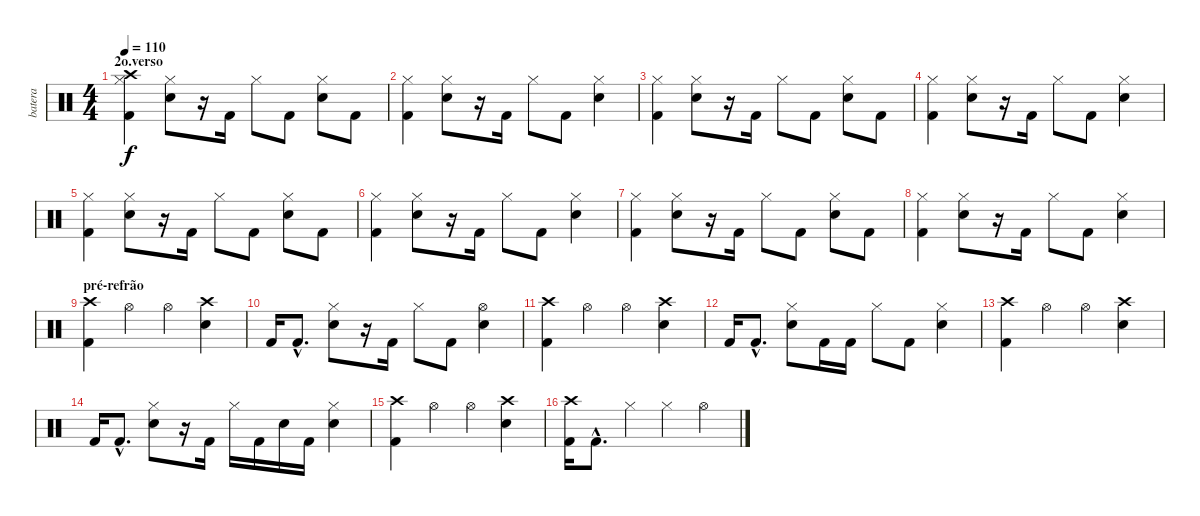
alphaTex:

\track ("batera" "batera") {instrument percussion}
\staff {score}
\articulation defaults
\ts (4 4)
\section ("" "2o.verso")
\tempo 110
\clef neutral
\ks c
("Crash high (hit)" "Kick (hit) 2" "Hi-Hat (closed)").4{dy f} ("Snare (hit) 2" "Hi-Hat (closed)").8 r.16 "Kick (hit) 2".16 "Hi-Hat (closed)".8 "Kick (hit) 2".8 ("Snare (hit) 2" "Hi-Hat (closed)").8 "Kick (hit) 2".8 |
("Kick (hit) 2" "Hi-Hat (closed)").4 ("Snare (hit) 2" "Hi-Hat (closed)").8 r.16 "Kick (hit) 2".16 "Hi-Hat (closed)".8 "Kick (hit) 2".8 ("Snare (hit) 2" "Hi-Hat (closed)").4 |
("Kick (hit) 2" "Hi-Hat (closed)").4 ("Snare (hit) 2" "Hi-Hat (closed)").8 r.16 "Kick (hit) 2".16 "Hi-Hat (closed)".8 "Kick (hit) 2".8 ("Snare (hit) 2" "Hi-Hat (closed)").8 "Kick (hit) 2".8 |
("Kick (hit) 2" "Hi-Hat (closed)").4 ("Snare (hit) 2" "Hi-Hat (closed)").8 r.16 "Kick (hit) 2".16 "Hi-Hat (closed)".8 "Kick (hit) 2".8 ("Snare (hit) 2" "Hi-Hat (closed)").4 |
("Kick (hit) 2" "Hi-Hat (closed)").4 ("Snare (hit) 2" "Hi-Hat (closed)").8 r.16 "Kick (hit) 2".16 "Hi-Hat (closed)".8 "Kick (hit) 2".8 ("Snare (hit) 2" "Hi-Hat (closed)").8 "Kick (hit) 2".8 |
("Kick (hit) 2" "Hi-Hat (closed)").4 ("Snare (hit) 2" "Hi-Hat (closed)").8 r.16 "Kick (hit) 2".16 "Hi-Hat (closed)".8 "Kick (hit) 2".8 ("Snare (hit) 2" "Hi-Hat (closed)").4 |
("Kick (hit) 2" "Hi-Hat (closed)").4 ("Snare (hit) 2" "Hi-Hat (closed)").8 r.16 "Kick (hit) 2".16 "Hi-Hat (closed)".8 "Kick (hit) 2".8 ("Snare (hit) 2" "Hi-Hat (closed)").8 "Kick (hit) 2".8 |
("Kick (hit) 2" "Hi-Hat (closed)").4 ("Snare (hit) 2" "Hi-Hat (closed)").8 r.16 "Kick (hit) 2".16 "Hi-Hat (closed)".8 "Kick (hit) 2".8 ("Snare (hit) 2" "Hi-Hat (closed)").4 |
\section ("" "pré-refrão")
("Crash high (hit)" "Kick (hit) 2").4 "Hi-Hat (open)".4 "Hi-Hat (open)".4 ("Crash high (hit)" "Snare (hit) 2").4 |
"Kick (hit) 2".16 "Kick (hit) 2"{hac}.8{d} ("Snare (hit) 2" "Hi-Hat (closed)").8 r.16 "Kick (hit) 2".16 "Hi-Hat (closed)".8 "Kick (hit) 2".8 ("Snare (hit) 2" "Hi-Hat (open)").4 |
("Crash high (hit)" "Kick (hit) 2").4 "Hi-Hat (open)".4 "Hi-Hat (open)".4 ("Crash high (hit)" "Snare (hit) 2").4 |
"Kick (hit) 2".16 "Kick (hit) 2"{hac}.8{d} ("Snare (hit) 2" "Hi-Hat (closed)").8 "Kick (hit) 2".16 "Kick (hit) 2".16 "Hi-Hat (closed)".8 "Kick (hit) 2".8 ("Snare (hit) 2" "Hi-Hat (closed)").4 |
("Crash high (hit)" "Kick (hit) 2").4 "Hi-Hat (open)".4 "Hi-Hat (open)".4 ("Crash high (hit)" "Snare (hit) 2").4 |
"Kick (hit) 2".16 "Kick (hit) 2"{hac}.8{d} ("Snare (hit) 2" "Hi-Hat (closed)").8 r.16 "Kick (hit) 2".16 "Hi-Hat (closed)".16 "Kick (hit) 2".16 "Snare (hit) 2".16 "Kick (hit) 2".16 ("Snare (hit) 2" "Hi-Hat (closed)").4 |
("Crash high (hit)" "Kick (hit) 2").4 "Hi-Hat (open)".4 "Hi-Hat (open)".4 ("Crash high (hit)" "Snare (hit) 2").4 |
("Crash high (hit)" "Kick (hit) 2").16 "Kick (hit) 2"{hac}.8{d} "Hi-Hat (closed)".4 "Hi-Hat (closed)".4 "Hi-Hat (open)".4
